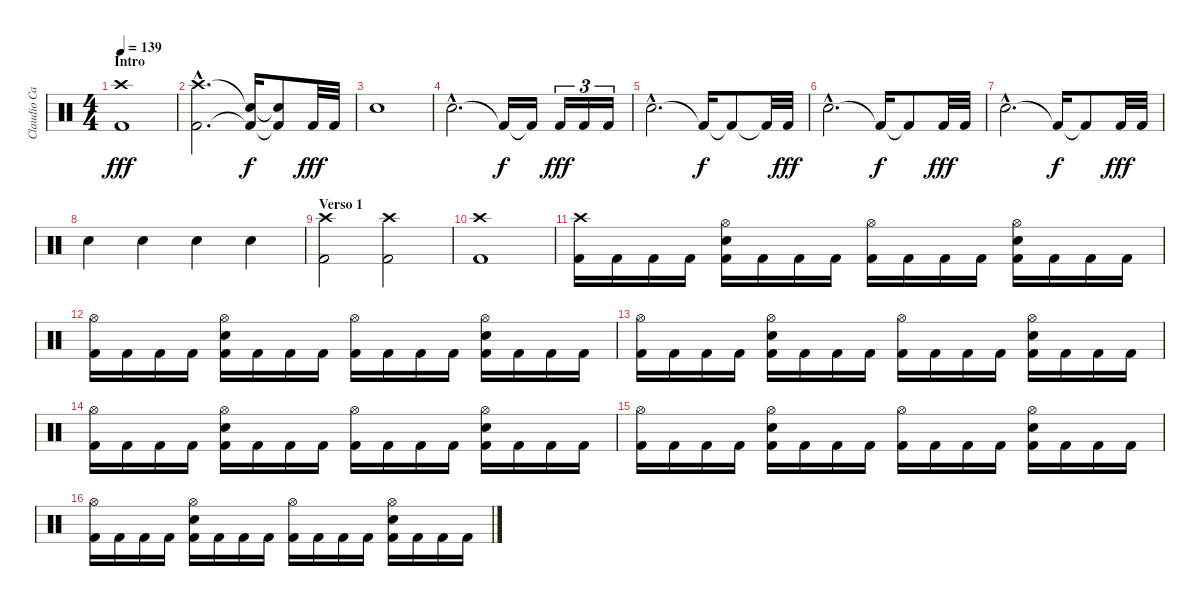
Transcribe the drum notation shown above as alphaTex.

\track ("Claudio Cardaci" "Claudio Ca") {instrument percussion}
\staff {score}
\articulation defaults
\ts (4 4)
\section ("" "Intro")
\tempo 139
\clef neutral
\ks c
("Kick (hit) 2" "Crash high (hit)").1{dy fff} |
("Kick (hit) 2"{hac} "Crash high (hit)"{hac}).2{d} ("Kick (hit) 2"{t} "Snare (hit)"{t}).16{dy f} ("Kick (hit) 2"{t} "Snare (hit)"{t}).8 "Kick (hit) 2".32{dy fff} "Kick (hit) 2".32 |
"Electric Snare (hit)".1 |
"Electric Snare (hit)"{hac}.2{d} "Kick (hit) 2"{t}.16{dy f} "Kick (hit) 2"{t}.16 "Kick (hit) 2".16{tu (3 2) dy fff} "Kick (hit) 2".16{tu (3 2)} "Kick (hit) 2".16{tu (3 2)} |
"Electric Snare (hit)"{hac}.2{d} "Kick (hit) 2"{t}.16{dy f} "Kick (hit) 2"{t}.8 "Kick (hit) 2"{t}.32 "Kick (hit) 2".32{dy fff} |
"Electric Snare (hit)"{hac}.2{d} "Kick (hit) 2"{t}.16{dy f} "Kick (hit) 2"{t}.8 "Kick (hit) 2".32{dy fff} "Kick (hit) 2".32 |
"Electric Snare (hit)"{hac}.2{d} "Kick (hit) 2"{t}.16{dy f} "Kick (hit) 2"{t}.8 "Kick (hit) 2".32{dy fff} "Kick (hit) 2".32 |
"Electric Snare (hit)".4 "Electric Snare (hit)".4 "Electric Snare (hit)".4 "Electric Snare (hit)".4 |
\section ("" "Verso 1")
("Kick (hit) 2" "Crash high (hit)").2 ("Kick (hit) 2" "Crash high (hit)").2 |
("Kick (hit) 2" "Crash high (hit)").1 |
("Kick (hit) 2" "Crash high (hit)").16 "Kick (hit) 2".16 "Kick (hit) 2".16 "Kick (hit) 2".16 ("Kick (hit) 2" "Electric Snare (hit)" "Hi-Hat (open)").16 "Kick (hit) 2".16 "Kick (hit) 2".16 "Kick (hit) 2".16 ("Kick (hit) 2" "Hi-Hat (open)").16 "Kick (hit) 2".16 "Kick (hit) 2".16 "Kick (hit) 2".16 ("Kick (hit) 2" "Electric Snare (hit)" "Hi-Hat (open)").16 "Kick (hit) 2".16 "Kick (hit) 2".16 "Kick (hit) 2".16 |
("Kick (hit) 2" "Hi-Hat (open)").16 "Kick (hit) 2".16 "Kick (hit) 2".16 "Kick (hit) 2".16 ("Kick (hit) 2" "Electric Snare (hit)" "Hi-Hat (open)").16 "Kick (hit) 2".16 "Kick (hit) 2".16 "Kick (hit) 2".16 ("Kick (hit) 2" "Hi-Hat (open)").16 "Kick (hit) 2".16 "Kick (hit) 2".16 "Kick (hit) 2".16 ("Kick (hit) 2" "Electric Snare (hit)" "Hi-Hat (open)").16 "Kick (hit) 2".16 "Kick (hit) 2".16 "Kick (hit) 2".16 |
("Kick (hit) 2" "Hi-Hat (open)").16 "Kick (hit) 2".16 "Kick (hit) 2".16 "Kick (hit) 2".16 ("Kick (hit) 2" "Electric Snare (hit)" "Hi-Hat (open)").16 "Kick (hit) 2".16 "Kick (hit) 2".16 "Kick (hit) 2".16 ("Kick (hit) 2" "Hi-Hat (open)").16 "Kick (hit) 2".16 "Kick (hit) 2".16 "Kick (hit) 2".16 ("Kick (hit) 2" "Electric Snare (hit)" "Hi-Hat (open)").16 "Kick (hit) 2".16 "Kick (hit) 2".16 "Kick (hit) 2".16 |
("Kick (hit) 2" "Hi-Hat (open)").16 "Kick (hit) 2".16 "Kick (hit) 2".16 "Kick (hit) 2".16 ("Kick (hit) 2" "Electric Snare (hit)" "Hi-Hat (open)").16 "Kick (hit) 2".16 "Kick (hit) 2".16 "Kick (hit) 2".16 ("Kick (hit) 2" "Hi-Hat (open)").16 "Kick (hit) 2".16 "Kick (hit) 2".16 "Kick (hit) 2".16 ("Kick (hit) 2" "Electric Snare (hit)" "Hi-Hat (open)").16 "Kick (hit) 2".16 "Kick (hit) 2".16 "Kick (hit) 2".16 |
("Kick (hit) 2" "Hi-Hat (open)").16 "Kick (hit) 2".16 "Kick (hit) 2".16 "Kick (hit) 2".16 ("Kick (hit) 2" "Electric Snare (hit)" "Hi-Hat (open)").16 "Kick (hit) 2".16 "Kick (hit) 2".16 "Kick (hit) 2".16 ("Kick (hit) 2" "Hi-Hat (open)").16 "Kick (hit) 2".16 "Kick (hit) 2".16 "Kick (hit) 2".16 ("Kick (hit) 2" "Electric Snare (hit)" "Hi-Hat (open)").16 "Kick (hit) 2".16 "Kick (hit) 2".16 "Kick (hit) 2".16 |
("Kick (hit) 2" "Hi-Hat (open)").16 "Kick (hit) 2".16 "Kick (hit) 2".16 "Kick (hit) 2".16 ("Kick (hit) 2" "Electric Snare (hit)" "Hi-Hat (open)").16 "Kick (hit) 2".16 "Kick (hit) 2".16 "Kick (hit) 2".16 ("Kick (hit) 2" "Hi-Hat (open)").16 "Kick (hit) 2".16 "Kick (hit) 2".16 "Kick (hit) 2".16 ("Kick (hit) 2" "Electric Snare (hit)" "Hi-Hat (open)").16 "Kick (hit) 2".16 "Kick (hit) 2".16 "Kick (hit) 2".16
